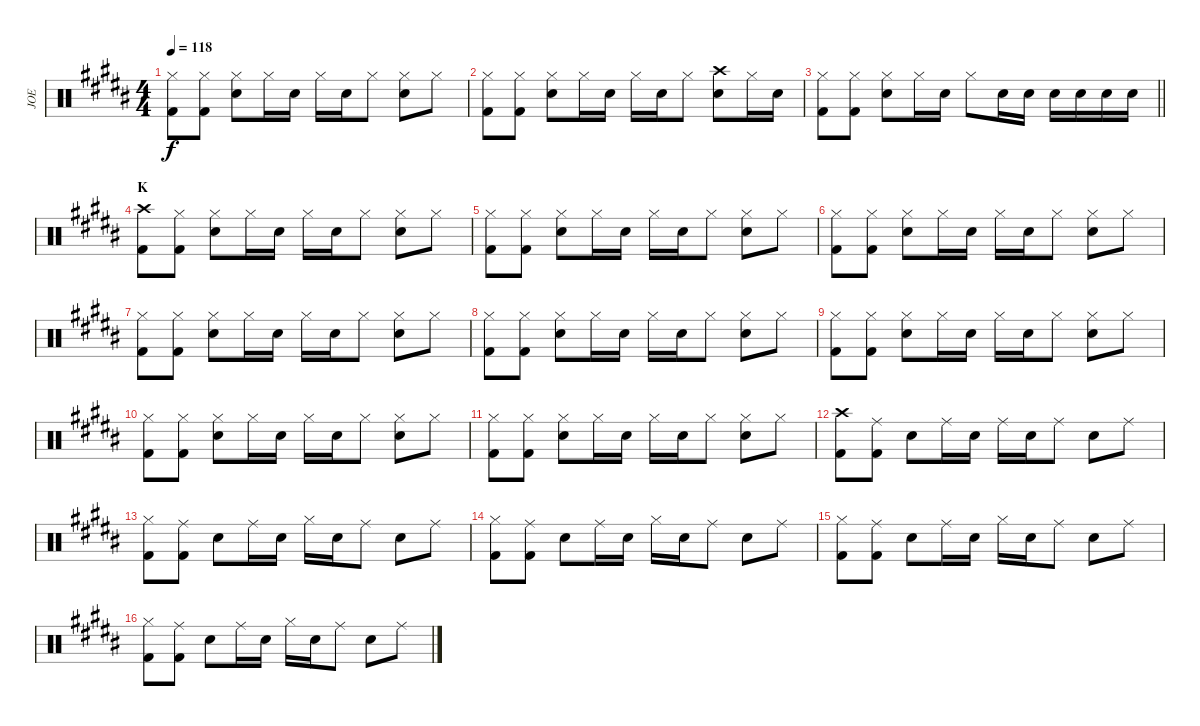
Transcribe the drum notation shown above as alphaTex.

\track ("JOE" "JOE") {instrument percussion}
\staff {score}
\articulation defaults
\ts (4 4)
\tempo 118
\clef neutral
\ks b
("Hi-Hat (closed)" "Kick (hit) 2").8{dy f} ("Hi-Hat (closed)" "Kick (hit) 2").8 ("Hi-Hat (closed)" "Snare (hit) 2").8 "Hi-Hat (closed)".16 "Snare (hit) 2".16 "Hi-Hat (closed)".16 "Snare (hit) 2".16 "Hi-Hat (closed)".8 ("Hi-Hat (closed)" "Snare (hit) 2").8 "Hi-Hat (closed)".8 |
("Hi-Hat (closed)" "Kick (hit) 2").8 ("Hi-Hat (closed)" "Kick (hit) 2").8 ("Hi-Hat (closed)" "Snare (hit) 2").8 "Hi-Hat (closed)".16 "Snare (hit) 2".16 "Hi-Hat (closed)".16 "Snare (hit) 2".16 "Hi-Hat (closed)".8 ("Crash high (hit)" "Snare (hit) 2").8 "Hi-Hat (closed)".16 "Snare (hit) 2".16 |
\barLineRight lightlight
("Hi-Hat (closed)" "Kick (hit) 2").8 ("Hi-Hat (closed)" "Kick (hit) 2").8 ("Hi-Hat (closed)" "Snare (hit) 2").8 "Hi-Hat (closed)".16 "Snare (hit) 2".16 "Hi-Hat (closed)".8 "Snare (hit) 2".16 "Snare (hit) 2".16 "Snare (hit) 2".16 "Snare (hit) 2".16 "Snare (hit) 2".16 "Snare (hit) 2".16 |
\section ("" "K")
("Crash high (hit)" "Kick (hit) 2").8 ("Hi-Hat (closed)" "Kick (hit) 2").8 ("Hi-Hat (closed)" "Snare (hit) 2").8 "Hi-Hat (closed)".16 "Snare (hit) 2".16 "Hi-Hat (closed)".16 "Snare (hit) 2".16 "Hi-Hat (closed)".8 ("Hi-Hat (closed)" "Snare (hit) 2").8 "Hi-Hat (closed)".8 |
("Hi-Hat (closed)" "Kick (hit) 2").8 ("Hi-Hat (closed)" "Kick (hit) 2").8 ("Hi-Hat (closed)" "Snare (hit) 2").8 "Hi-Hat (closed)".16 "Snare (hit) 2".16 "Hi-Hat (closed)".16 "Snare (hit) 2".16 "Hi-Hat (closed)".8 ("Hi-Hat (closed)" "Snare (hit) 2").8 "Hi-Hat (closed)".8 |
("Hi-Hat (closed)" "Kick (hit) 2").8 ("Hi-Hat (closed)" "Kick (hit) 2").8 ("Hi-Hat (closed)" "Snare (hit) 2").8 "Hi-Hat (closed)".16 "Snare (hit) 2".16 "Hi-Hat (closed)".16 "Snare (hit) 2".16 "Hi-Hat (closed)".8 ("Hi-Hat (closed)" "Snare (hit) 2").8 "Hi-Hat (closed)".8 |
("Hi-Hat (closed)" "Kick (hit) 2").8 ("Hi-Hat (closed)" "Kick (hit) 2").8 ("Hi-Hat (closed)" "Snare (hit) 2").8 "Hi-Hat (closed)".16 "Snare (hit) 2".16 "Hi-Hat (closed)".16 "Snare (hit) 2".16 "Hi-Hat (closed)".8 ("Hi-Hat (closed)" "Snare (hit) 2").8 "Hi-Hat (closed)".8 |
("Hi-Hat (closed)" "Kick (hit) 2").8 ("Hi-Hat (closed)" "Kick (hit) 2").8 ("Hi-Hat (closed)" "Snare (hit) 2").8 "Hi-Hat (closed)".16 "Snare (hit) 2".16 "Hi-Hat (closed)".16 "Snare (hit) 2".16 "Hi-Hat (closed)".8 ("Hi-Hat (closed)" "Snare (hit) 2").8 "Hi-Hat (closed)".8 |
("Hi-Hat (closed)" "Kick (hit) 2").8 ("Hi-Hat (closed)" "Kick (hit) 2").8 ("Hi-Hat (closed)" "Snare (hit) 2").8 "Hi-Hat (closed)".16 "Snare (hit) 2".16 "Hi-Hat (closed)".16 "Snare (hit) 2".16 "Hi-Hat (closed)".8 ("Hi-Hat (closed)" "Snare (hit) 2").8 "Hi-Hat (closed)".8 |
("Hi-Hat (closed)" "Kick (hit) 2").8 ("Hi-Hat (closed)" "Kick (hit) 2").8 ("Hi-Hat (closed)" "Snare (hit) 2").8 "Hi-Hat (closed)".16 "Snare (hit) 2".16 "Hi-Hat (closed)".16 "Snare (hit) 2".16 "Hi-Hat (closed)".8 ("Hi-Hat (closed)" "Snare (hit) 2").8 "Hi-Hat (closed)".8 |
("Hi-Hat (closed)" "Kick (hit) 2").8 ("Hi-Hat (closed)" "Kick (hit) 2").8 ("Hi-Hat (closed)" "Snare (hit) 2").8 "Hi-Hat (closed)".16 "Snare (hit) 2".16 "Hi-Hat (closed)".16 "Snare (hit) 2".16 "Hi-Hat (closed)".8 ("Hi-Hat (closed)" "Snare (hit) 2").8 "Hi-Hat (closed)".8 |
("Crash high (hit)" "Kick (hit) 2").8 ("Ride (middle)" "Kick (hit) 2").8 "Snare (hit) 2".8 "Ride (middle)".16 "Snare (hit) 2".16 "Ride (middle)".16 "Snare (hit) 2".16 "Ride (middle)".8 "Snare (hit) 2".8 "Ride (middle)".8 |
("Hi-Hat (closed)" "Kick (hit) 2").8 ("Ride (middle)" "Kick (hit) 2").8 "Snare (hit) 2".8 "Ride (middle)".16 "Snare (hit) 2".16 "Hi-Hat (closed)".16 "Snare (hit) 2".16 "Ride (middle)".8 "Snare (hit) 2".8 "Ride (middle)".8 |
("Hi-Hat (closed)" "Kick (hit) 2").8 ("Ride (middle)" "Kick (hit) 2").8 "Snare (hit) 2".8 "Ride (middle)".16 "Snare (hit) 2".16 "Hi-Hat (closed)".16 "Snare (hit) 2".16 "Ride (middle)".8 "Snare (hit) 2".8 "Ride (middle)".8 |
("Hi-Hat (closed)" "Kick (hit) 2").8 ("Ride (middle)" "Kick (hit) 2").8 "Snare (hit) 2".8 "Ride (middle)".16 "Snare (hit) 2".16 "Hi-Hat (closed)".16 "Snare (hit) 2".16 "Ride (middle)".8 "Snare (hit) 2".8 "Ride (middle)".8 |
("Hi-Hat (closed)" "Kick (hit) 2").8 ("Ride (middle)" "Kick (hit) 2").8 "Snare (hit) 2".8 "Ride (middle)".16 "Snare (hit) 2".16 "Hi-Hat (closed)".16 "Snare (hit) 2".16 "Ride (middle)".8 "Snare (hit) 2".8 "Ride (middle)".8
